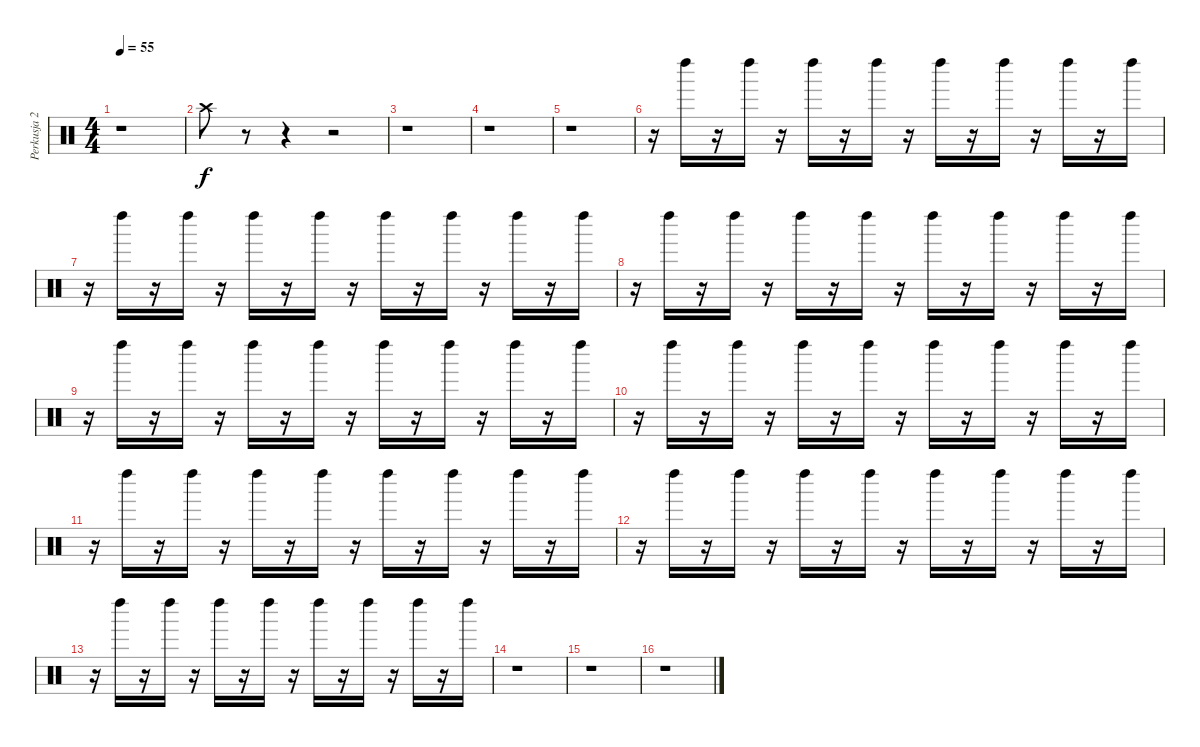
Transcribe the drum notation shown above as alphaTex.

\track ("Perkusja 2" "Perkusja 2") {instrument percussion}
\staff {score}
\articulation defaults
\ts (4 4)
\tempo 55
\clef neutral
\ks c
r.1{dy f} |
"Crash high (hit)".8 r.8 r.4 r.2 |
r.1 |
r.1 |
r.1 |
r.16 "Left Maraca (hit)".16 r.16 "Left Maraca (hit)".16 r.16 "Left Maraca (hit)".16 r.16 "Left Maraca (hit)".16 r.16 "Left Maraca (hit)".16 r.16 "Left Maraca (hit)".16 r.16 "Left Maraca (hit)".16 r.16 "Left Maraca (hit)".16 |
r.16 "Left Maraca (hit)".16 r.16 "Left Maraca (hit)".16 r.16 "Left Maraca (hit)".16 r.16 "Left Maraca (hit)".16 r.16 "Left Maraca (hit)".16 r.16 "Left Maraca (hit)".16 r.16 "Left Maraca (hit)".16 r.16 "Left Maraca (hit)".16 |
r.16 "Left Maraca (hit)".16 r.16 "Left Maraca (hit)".16 r.16 "Left Maraca (hit)".16 r.16 "Left Maraca (hit)".16 r.16 "Left Maraca (hit)".16 r.16 "Left Maraca (hit)".16 r.16 "Left Maraca (hit)".16 r.16 "Left Maraca (hit)".16 |
r.16 "Left Maraca (hit)".16 r.16 "Left Maraca (hit)".16 r.16 "Left Maraca (hit)".16 r.16 "Left Maraca (hit)".16 r.16 "Left Maraca (hit)".16 r.16 "Left Maraca (hit)".16 r.16 "Left Maraca (hit)".16 r.16 "Left Maraca (hit)".16 |
r.16 "Left Maraca (hit)".16 r.16 "Left Maraca (hit)".16 r.16 "Left Maraca (hit)".16 r.16 "Left Maraca (hit)".16 r.16 "Left Maraca (hit)".16 r.16 "Left Maraca (hit)".16 r.16 "Left Maraca (hit)".16 r.16 "Left Maraca (hit)".16 |
r.16 "Left Maraca (hit)".16 r.16 "Left Maraca (hit)".16 r.16 "Left Maraca (hit)".16 r.16 "Left Maraca (hit)".16 r.16 "Left Maraca (hit)".16 r.16 "Left Maraca (hit)".16 r.16 "Left Maraca (hit)".16 r.16 "Left Maraca (hit)".16 |
r.16 "Left Maraca (hit)".16 r.16 "Left Maraca (hit)".16 r.16 "Left Maraca (hit)".16 r.16 "Left Maraca (hit)".16 r.16 "Left Maraca (hit)".16 r.16 "Left Maraca (hit)".16 r.16 "Left Maraca (hit)".16 r.16 "Left Maraca (hit)".16 |
r.16 "Left Maraca (hit)".16 r.16 "Left Maraca (hit)".16 r.16 "Left Maraca (hit)".16 r.16 "Left Maraca (hit)".16 r.16 "Left Maraca (hit)".16 r.16 "Left Maraca (hit)".16 r.16 "Left Maraca (hit)".16 r.16 "Left Maraca (hit)".16 |
r.1 |
r.1 |
r.1
